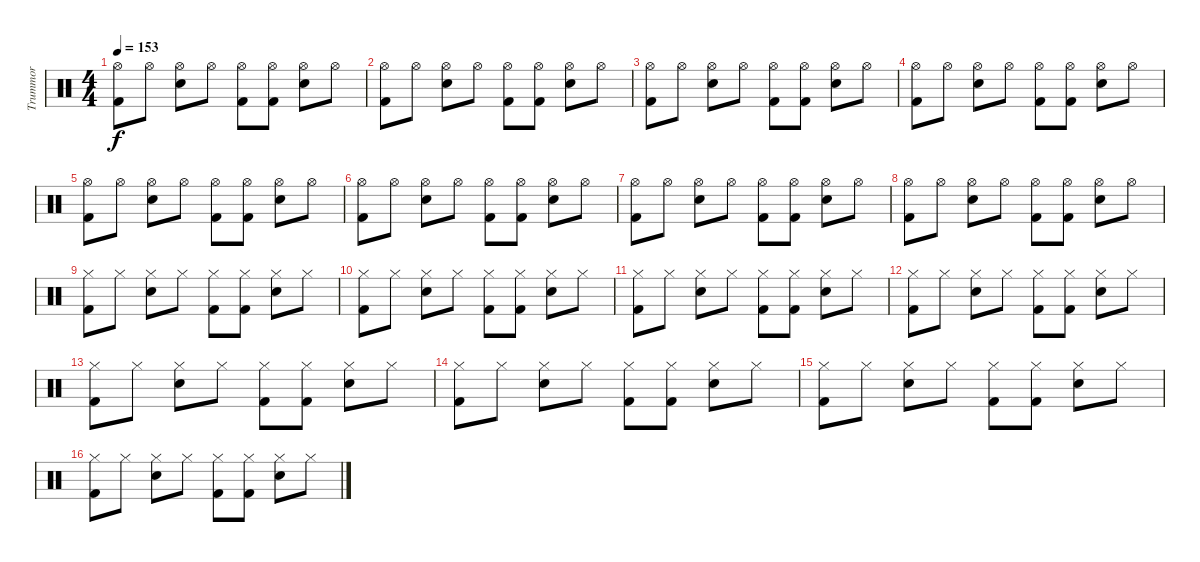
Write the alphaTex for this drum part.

\track ("Trummor" "Trummor") {instrument percussion}
\staff {score}
\articulation defaults
\ts (4 4)
\tempo 153
\clef neutral
\ks c
("Hi-Hat (open)" "Kick (hit) 2").8{dy f} "Hi-Hat (open)".8 ("Hi-Hat (open)" "Snare (hit) 2").8 "Hi-Hat (open)".8 ("Hi-Hat (open)" "Kick (hit) 2").8 ("Hi-Hat (open)" "Kick (hit) 2").8 ("Hi-Hat (open)" "Snare (hit) 2").8 "Hi-Hat (open)".8 |
("Hi-Hat (open)" "Kick (hit) 2").8 "Hi-Hat (open)".8 ("Hi-Hat (open)" "Snare (hit) 2").8 "Hi-Hat (open)".8 ("Hi-Hat (open)" "Kick (hit) 2").8 ("Hi-Hat (open)" "Kick (hit) 2").8 ("Hi-Hat (open)" "Snare (hit) 2").8 "Hi-Hat (open)".8 |
("Hi-Hat (open)" "Kick (hit) 2").8 "Hi-Hat (open)".8 ("Hi-Hat (open)" "Snare (hit) 2").8 "Hi-Hat (open)".8 ("Hi-Hat (open)" "Kick (hit) 2").8 ("Hi-Hat (open)" "Kick (hit) 2").8 ("Hi-Hat (open)" "Snare (hit) 2").8 "Hi-Hat (open)".8 |
("Hi-Hat (open)" "Kick (hit) 2").8 "Hi-Hat (open)".8 ("Hi-Hat (open)" "Snare (hit) 2").8 "Hi-Hat (open)".8 ("Hi-Hat (open)" "Kick (hit) 2").8 ("Hi-Hat (open)" "Kick (hit) 2").8 ("Hi-Hat (open)" "Snare (hit) 2").8 "Hi-Hat (open)".8 |
("Hi-Hat (open)" "Kick (hit) 2").8 "Hi-Hat (open)".8 ("Hi-Hat (open)" "Snare (hit) 2").8 "Hi-Hat (open)".8 ("Hi-Hat (open)" "Kick (hit) 2").8 ("Hi-Hat (open)" "Kick (hit) 2").8 ("Hi-Hat (open)" "Snare (hit) 2").8 "Hi-Hat (open)".8 |
("Hi-Hat (open)" "Kick (hit) 2").8 "Hi-Hat (open)".8 ("Hi-Hat (open)" "Snare (hit) 2").8 "Hi-Hat (open)".8 ("Hi-Hat (open)" "Kick (hit) 2").8 ("Hi-Hat (open)" "Kick (hit) 2").8 ("Hi-Hat (open)" "Snare (hit) 2").8 "Hi-Hat (open)".8 |
("Hi-Hat (open)" "Kick (hit) 2").8 "Hi-Hat (open)".8 ("Hi-Hat (open)" "Snare (hit) 2").8 "Hi-Hat (open)".8 ("Hi-Hat (open)" "Kick (hit) 2").8 ("Hi-Hat (open)" "Kick (hit) 2").8 ("Hi-Hat (open)" "Snare (hit) 2").8 "Hi-Hat (open)".8 |
("Hi-Hat (open)" "Kick (hit) 2").8 "Hi-Hat (open)".8 ("Hi-Hat (open)" "Snare (hit) 2").8 "Hi-Hat (open)".8 ("Hi-Hat (open)" "Kick (hit) 2").8 ("Hi-Hat (open)" "Kick (hit) 2").8 ("Hi-Hat (open)" "Snare (hit) 2").8 "Hi-Hat (open)".8 |
("Hi-Hat (closed)" "Kick (hit) 2").8 "Hi-Hat (closed)".8 ("Hi-Hat (closed)" "Snare (hit) 2").8 "Hi-Hat (closed)".8 ("Hi-Hat (closed)" "Kick (hit) 2").8 ("Hi-Hat (closed)" "Kick (hit) 2").8 ("Hi-Hat (closed)" "Snare (hit) 2").8 "Hi-Hat (closed)".8 |
("Hi-Hat (closed)" "Kick (hit) 2").8 "Hi-Hat (closed)".8 ("Hi-Hat (closed)" "Snare (hit) 2").8 "Hi-Hat (closed)".8 ("Hi-Hat (closed)" "Kick (hit) 2").8 ("Hi-Hat (closed)" "Kick (hit) 2").8 ("Hi-Hat (closed)" "Snare (hit) 2").8 "Hi-Hat (closed)".8 |
("Hi-Hat (closed)" "Kick (hit) 2").8 "Hi-Hat (closed)".8 ("Hi-Hat (closed)" "Snare (hit) 2").8 "Hi-Hat (closed)".8 ("Hi-Hat (closed)" "Kick (hit) 2").8 ("Hi-Hat (closed)" "Kick (hit) 2").8 ("Hi-Hat (closed)" "Snare (hit) 2").8 "Hi-Hat (closed)".8 |
("Hi-Hat (closed)" "Kick (hit) 2").8 "Hi-Hat (closed)".8 ("Hi-Hat (closed)" "Snare (hit) 2").8 "Hi-Hat (closed)".8 ("Hi-Hat (closed)" "Kick (hit) 2").8 ("Hi-Hat (closed)" "Kick (hit) 2").8 ("Hi-Hat (closed)" "Snare (hit) 2").8 "Hi-Hat (closed)".8 |
("Hi-Hat (closed)" "Kick (hit) 2").8 "Hi-Hat (closed)".8 ("Hi-Hat (closed)" "Snare (hit) 2").8 "Hi-Hat (closed)".8 ("Hi-Hat (closed)" "Kick (hit) 2").8 ("Hi-Hat (closed)" "Kick (hit) 2").8 ("Hi-Hat (closed)" "Snare (hit) 2").8 "Hi-Hat (closed)".8 |
("Hi-Hat (closed)" "Kick (hit) 2").8 "Hi-Hat (closed)".8 ("Hi-Hat (closed)" "Snare (hit) 2").8 "Hi-Hat (closed)".8 ("Hi-Hat (closed)" "Kick (hit) 2").8 ("Hi-Hat (closed)" "Kick (hit) 2").8 ("Hi-Hat (closed)" "Snare (hit) 2").8 "Hi-Hat (closed)".8 |
("Hi-Hat (closed)" "Kick (hit) 2").8 "Hi-Hat (closed)".8 ("Hi-Hat (closed)" "Snare (hit) 2").8 "Hi-Hat (closed)".8 ("Hi-Hat (closed)" "Kick (hit) 2").8 ("Hi-Hat (closed)" "Kick (hit) 2").8 ("Hi-Hat (closed)" "Snare (hit) 2").8 "Hi-Hat (closed)".8 |
("Hi-Hat (closed)" "Kick (hit) 2").8 "Hi-Hat (closed)".8 ("Hi-Hat (closed)" "Snare (hit) 2").8 "Hi-Hat (closed)".8 ("Hi-Hat (closed)" "Kick (hit) 2").8 ("Hi-Hat (closed)" "Kick (hit) 2").8 ("Hi-Hat (closed)" "Snare (hit) 2").8 "Hi-Hat (closed)".8
